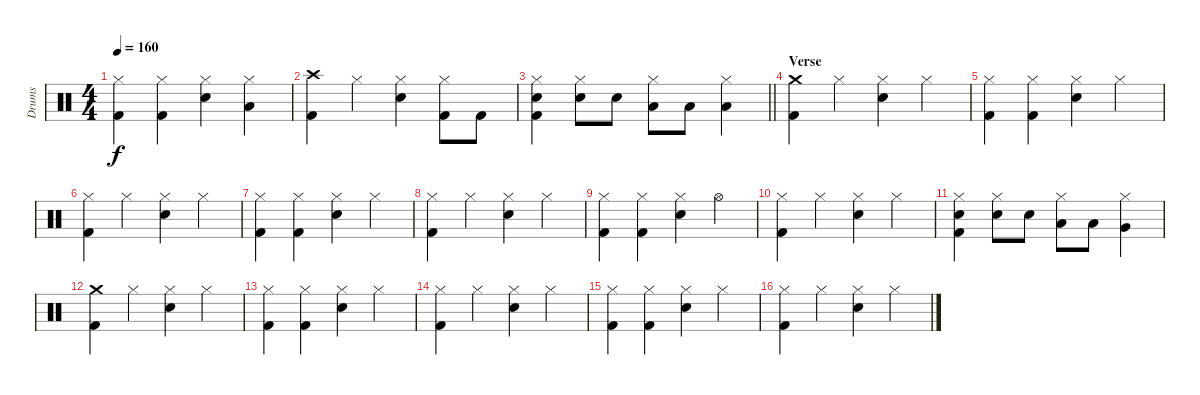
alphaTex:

\track ("Drums" "Drums") {instrument percussion}
\staff {score}
\articulation defaults
\ts (4 4)
\tempo 160
\clef neutral
\ks c
("Hi-Hat (closed)" "Kick (hit) 2").4{dy f} ("Hi-Hat (closed)" "Kick (hit) 2").4 ("Hi-Hat (closed)" "Snare (hit) 2").4 ("Hi-Hat (closed)" "Low Tom (hit)").4 |
("Crash high (hit)" "Kick (hit) 2").4 "Hi-Hat (closed)".4 ("Hi-Hat (closed)" "Snare (hit) 2").4 ("Hi-Hat (closed)" "Kick (hit) 2").8 "Kick (hit) 2".8 |
\barLineRight lightlight
("Hi-Hat (closed)" "Snare (hit) 2" "Kick (hit) 2").4 ("Hi-Hat (closed)" "Snare (hit) 2").8 "Snare (hit) 2".8 ("Hi-Hat (closed)" "Low Tom (hit)").8 "Low Tom (hit)".8 ("Hi-Hat (closed)" "Low Tom (hit)").4 |
\section ("" "Verse")
("Crash medium (hit)" "Kick (hit) 2").4 "Hi-Hat (closed)".4 ("Hi-Hat (closed)" "Snare (hit) 2").4 "Hi-Hat (closed)".4 |
("Hi-Hat (closed)" "Kick (hit) 2").4 ("Hi-Hat (closed)" "Kick (hit) 2").4 ("Hi-Hat (closed)" "Snare (hit) 2").4 "Hi-Hat (closed)".4 |
("Hi-Hat (closed)" "Kick (hit) 2").4 "Hi-Hat (closed)".4 ("Hi-Hat (closed)" "Snare (hit) 2").4 "Hi-Hat (closed)".4 |
("Hi-Hat (closed)" "Kick (hit) 2").4 ("Hi-Hat (closed)" "Kick (hit) 2").4 ("Hi-Hat (closed)" "Snare (hit) 2").4 "Hi-Hat (closed)".4 |
("Hi-Hat (closed)" "Kick (hit) 2").4 "Hi-Hat (closed)".4 ("Hi-Hat (closed)" "Snare (hit) 2").4 "Hi-Hat (closed)".4 |
("Hi-Hat (closed)" "Kick (hit) 2").4 ("Hi-Hat (closed)" "Kick (hit) 2").4 ("Hi-Hat (closed)" "Snare (hit) 2").4 "Hi-Hat (open)".4 |
("Hi-Hat (closed)" "Kick (hit) 2").4 "Hi-Hat (closed)".4 ("Hi-Hat (closed)" "Snare (hit) 2").4 "Hi-Hat (closed)".4 |
("Hi-Hat (closed)" "Snare (hit) 2" "Kick (hit) 2").4 ("Hi-Hat (closed)" "Snare (hit) 2").8 "Snare (hit) 2".8 ("Hi-Hat (closed)" "Low Tom (hit)").8 "Low Floor Tom (hit)".8 ("Hi-Hat (closed)" "Very Low Tom (hit)").4 |
("Crash medium (hit)" "Kick (hit) 2").4 "Hi-Hat (closed)".4 ("Hi-Hat (closed)" "Snare (hit) 2").4 "Hi-Hat (closed)".4 |
("Hi-Hat (closed)" "Kick (hit) 2").4 ("Hi-Hat (closed)" "Kick (hit) 2").4 ("Hi-Hat (closed)" "Snare (hit) 2").4 "Hi-Hat (closed)".4 |
("Hi-Hat (closed)" "Kick (hit) 2").4 "Hi-Hat (closed)".4 ("Hi-Hat (closed)" "Snare (hit) 2").4 "Hi-Hat (closed)".4 |
("Hi-Hat (closed)" "Kick (hit) 2").4 ("Hi-Hat (closed)" "Kick (hit) 2").4 ("Hi-Hat (closed)" "Snare (hit) 2").4 "Hi-Hat (closed)".4 |
("Hi-Hat (closed)" "Kick (hit) 2").4 "Hi-Hat (closed)".4 ("Hi-Hat (closed)" "Snare (hit) 2").4 "Hi-Hat (closed)".4
